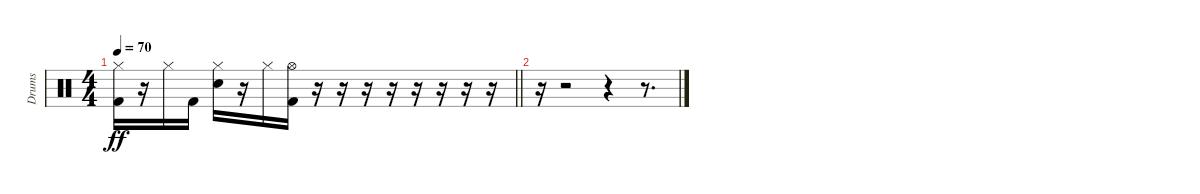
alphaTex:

\track ("Drums" "Drums") {instrument percussion}
\staff {score}
\articulation defaults
\ts (4 4)
\tempo 70
\clef neutral
\barLineRight lightlight
\ks c
("Hi-Hat (closed)" "Kick (hit) 2").16{dy ff} r.16 "Hi-Hat (closed)".16 "Kick (hit) 2".16 ("Hi-Hat (closed)" "Snare (hit) 2").16 r.16 "Hi-Hat (closed)".16 ("Hi-Hat (open)" "Kick (hit) 2").16 r.16 r.16 r.16 r.16 r.16 r.16 r.16 r.16 |
r.16 r.2 r.4 r.8{d}
